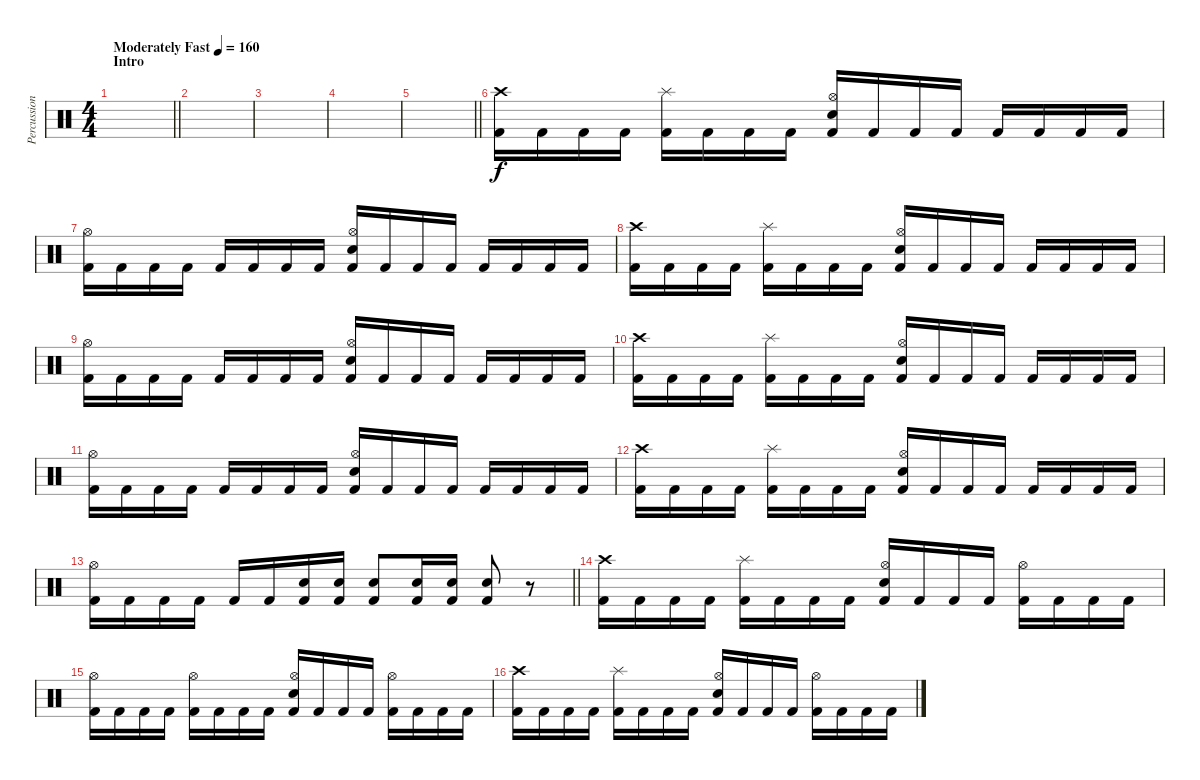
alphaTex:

\track ("Percussion" "Percussion") {instrument percussion}
\staff {score}
\articulation defaults
\ts (4 4)
\section ("" "Intro")
\tempo (160 "Moderately Fast")
\clef neutral
\barLineRight lightlight
\ks c
|
|
|
|
\barLineRight lightlight
|
("Crash high (hit)" "Kick (hit) 2").16 "Kick (hit) 2".16 "Kick (hit) 2".16 "Kick (hit) 2".16 ("Splash (hit)" "Kick (hit) 2").16 "Kick (hit) 2".16 "Kick (hit) 2".16 "Kick (hit) 2".16 ("Hi-Hat (open)" "Snare (hit) 2" "Kick (hit) 2").16 "Kick (hit) 2".16 "Kick (hit) 2".16 "Kick (hit) 2".16 "Kick (hit) 2".16 "Kick (hit) 2".16 "Kick (hit) 2".16 "Kick (hit) 2".16 |
("Hi-Hat (open)" "Kick (hit) 2").16 "Kick (hit) 2".16 "Kick (hit) 2".16 "Kick (hit) 2".16 "Kick (hit) 2".16 "Kick (hit) 2".16 "Kick (hit) 2".16 "Kick (hit) 2".16 ("Hi-Hat (open)" "Snare (hit) 2" "Kick (hit) 2").16 "Kick (hit) 2".16 "Kick (hit) 2".16 "Kick (hit) 2".16 "Kick (hit) 2".16 "Kick (hit) 2".16 "Kick (hit) 2".16 "Kick (hit) 2".16 |
("Crash high (hit)" "Kick (hit) 2").16 "Kick (hit) 2".16 "Kick (hit) 2".16 "Kick (hit) 2".16 ("Splash (hit)" "Kick (hit) 2").16 "Kick (hit) 2".16 "Kick (hit) 2".16 "Kick (hit) 2".16 ("Hi-Hat (open)" "Snare (hit) 2" "Kick (hit) 2").16 "Kick (hit) 2".16 "Kick (hit) 2".16 "Kick (hit) 2".16 "Kick (hit) 2".16 "Kick (hit) 2".16 "Kick (hit) 2".16 "Kick (hit) 2".16 |
("Hi-Hat (open)" "Kick (hit) 2").16 "Kick (hit) 2".16 "Kick (hit) 2".16 "Kick (hit) 2".16 "Kick (hit) 2".16 "Kick (hit) 2".16 "Kick (hit) 2".16 "Kick (hit) 2".16 ("Hi-Hat (open)" "Snare (hit) 2" "Kick (hit) 2").16 "Kick (hit) 2".16 "Kick (hit) 2".16 "Kick (hit) 2".16 "Kick (hit) 2".16 "Kick (hit) 2".16 "Kick (hit) 2".16 "Kick (hit) 2".16 |
("Crash high (hit)" "Kick (hit) 2").16 "Kick (hit) 2".16 "Kick (hit) 2".16 "Kick (hit) 2".16 ("Splash (hit)" "Kick (hit) 2").16 "Kick (hit) 2".16 "Kick (hit) 2".16 "Kick (hit) 2".16 ("Hi-Hat (open)" "Snare (hit) 2" "Kick (hit) 2").16 "Kick (hit) 2".16 "Kick (hit) 2".16 "Kick (hit) 2".16 "Kick (hit) 2".16 "Kick (hit) 2".16 "Kick (hit) 2".16 "Kick (hit) 2".16 |
("Hi-Hat (open)" "Kick (hit) 2").16 "Kick (hit) 2".16 "Kick (hit) 2".16 "Kick (hit) 2".16 "Kick (hit) 2".16 "Kick (hit) 2".16 "Kick (hit) 2".16 "Kick (hit) 2".16 ("Hi-Hat (open)" "Snare (hit) 2" "Kick (hit) 2").16 "Kick (hit) 2".16 "Kick (hit) 2".16 "Kick (hit) 2".16 "Kick (hit) 2".16 "Kick (hit) 2".16 "Kick (hit) 2".16 "Kick (hit) 2".16 |
("Crash high (hit)" "Kick (hit) 2").16 "Kick (hit) 2".16 "Kick (hit) 2".16 "Kick (hit) 2".16 ("Splash (hit)" "Kick (hit) 2").16 "Kick (hit) 2".16 "Kick (hit) 2".16 "Kick (hit) 2".16 ("Hi-Hat (open)" "Snare (hit) 2" "Kick (hit) 2").16 "Kick (hit) 2".16 "Kick (hit) 2".16 "Kick (hit) 2".16 "Kick (hit) 2".16 "Kick (hit) 2".16 "Kick (hit) 2".16 "Kick (hit) 2".16 |
\barLineRight lightlight
("Hi-Hat (open)" "Kick (hit) 2").16 "Kick (hit) 2".16 "Kick (hit) 2".16 "Kick (hit) 2".16 "Kick (hit) 2".16 "Kick (hit) 2".16 ("Snare (hit) 2" "Kick (hit) 2").16 ("Snare (hit) 2" "Kick (hit) 2").16 ("Snare (hit) 2" "Kick (hit) 2").8 ("Snare (hit) 2" "Kick (hit) 2").16 ("Snare (hit) 2" "Kick (hit) 2").16 ("Snare (hit) 2" "Kick (hit) 2").8 r.8 |
("Crash high (hit)" "Kick (hit) 2").16 "Kick (hit) 2".16 "Kick (hit) 2".16 "Kick (hit) 2".16 ("Splash (hit)" "Kick (hit) 2").16 "Kick (hit) 2".16 "Kick (hit) 2".16 "Kick (hit) 2".16 ("Hi-Hat (open)" "Snare (hit) 2" "Kick (hit) 2").16 "Kick (hit) 2".16 "Kick (hit) 2".16 "Kick (hit) 2".16 ("Hi-Hat (open)" "Kick (hit) 2").16 "Kick (hit) 2".16 "Kick (hit) 2".16 "Kick (hit) 2".16 |
("Hi-Hat (open)" "Kick (hit) 2").16 "Kick (hit) 2".16 "Kick (hit) 2".16 "Kick (hit) 2".16 ("Hi-Hat (open)" "Kick (hit) 2").16 "Kick (hit) 2".16 "Kick (hit) 2".16 "Kick (hit) 2".16 ("Hi-Hat (open)" "Snare (hit) 2" "Kick (hit) 2").16 "Kick (hit) 2".16 "Kick (hit) 2".16 "Kick (hit) 2".16 ("Hi-Hat (open)" "Kick (hit) 2").16 "Kick (hit) 2".16 "Kick (hit) 2".16 "Kick (hit) 2".16 |
("Crash high (hit)" "Kick (hit) 2").16 "Kick (hit) 2".16 "Kick (hit) 2".16 "Kick (hit) 2".16 ("Splash (hit)" "Kick (hit) 2").16 "Kick (hit) 2".16 "Kick (hit) 2".16 "Kick (hit) 2".16 ("Hi-Hat (open)" "Snare (hit) 2" "Kick (hit) 2").16 "Kick (hit) 2".16 "Kick (hit) 2".16 "Kick (hit) 2".16 ("Hi-Hat (open)" "Kick (hit) 2").16 "Kick (hit) 2".16 "Kick (hit) 2".16 "Kick (hit) 2".16
